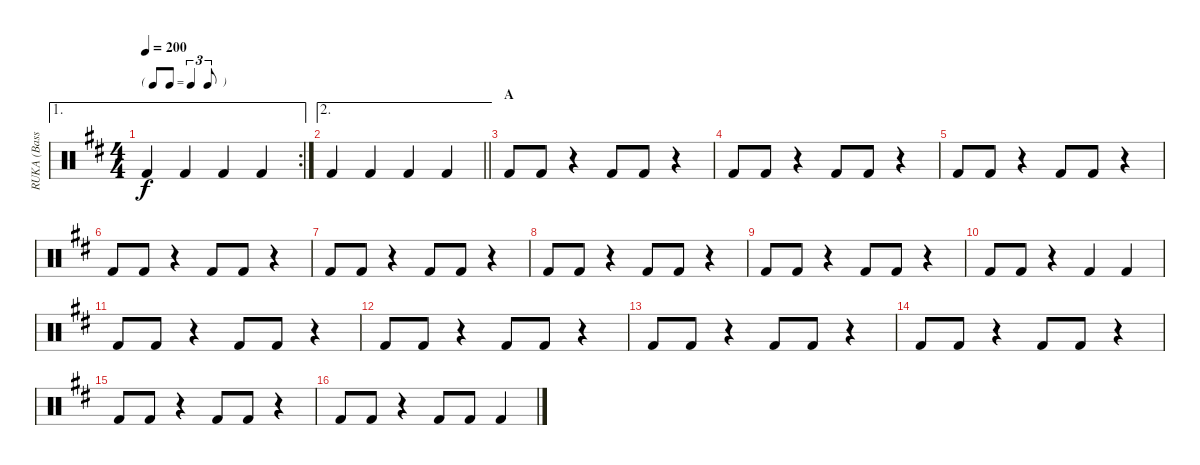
\track ("RUKA (Bass)" "RUKA (Bass") {instrument percussion}
\staff {score}
\articulation defaults
\ae 1
\rc 2
\ts (4 4)
\tf triplet8th
\tempo 200
\clef neutral
\ks d "Kick (hit) 2".4{dy f} "Kick (hit) 2".4 "Kick (hit) 2".4 "Kick (hit) 2".4
|
\ae 2
\barLineRight lightlight "Kick (hit) 2".4 "Kick (hit) 2".4 "Kick (hit) 2".4 "Kick (hit) 2".4
|
\section ("" "A")
"Kick (hit) 2".8 "Kick (hit) 2".8 r.4 "Kick (hit) 2".8 "Kick (hit) 2".8 r.4 |
"Kick (hit) 2".8 "Kick (hit) 2".8 r.4 "Kick (hit) 2".8 "Kick (hit) 2".8 r.4 |
"Kick (hit) 2".8 "Kick (hit) 2".8 r.4 "Kick (hit) 2".8 "Kick (hit) 2".8 r.4 |
"Kick (hit) 2".8 "Kick (hit) 2".8 r.4 "Kick (hit) 2".8 "Kick (hit) 2".8 r.4 |
"Kick (hit) 2".8 "Kick (hit) 2".8 r.4 "Kick (hit) 2".8 "Kick (hit) 2".8 r.4 |
"Kick (hit) 2".8 "Kick (hit) 2".8 r.4 "Kick (hit) 2".8 "Kick (hit) 2".8 r.4 |
"Kick (hit) 2".8 "Kick (hit) 2".8 r.4 "Kick (hit) 2".8 "Kick (hit) 2".8 r.4 |
"Kick (hit) 2".8 "Kick (hit) 2".8 r.4 "Kick (hit) 2".4 "Kick (hit) 2".4 |
"Kick (hit) 2".8 "Kick (hit) 2".8 r.4 "Kick (hit) 2".8 "Kick (hit) 2".8 r.4 |
"Kick (hit) 2".8 "Kick (hit) 2".8 r.4 "Kick (hit) 2".8 "Kick (hit) 2".8 r.4 |
"Kick (hit) 2".8 "Kick (hit) 2".8 r.4 "Kick (hit) 2".8 "Kick (hit) 2".8 r.4 |
"Kick (hit) 2".8 "Kick (hit) 2".8 r.4 "Kick (hit) 2".8 "Kick (hit) 2".8 r.4 |
"Kick (hit) 2".8 "Kick (hit) 2".8 r.4 "Kick (hit) 2".8 "Kick (hit) 2".8 r.4 |
"Kick (hit) 2".8 "Kick (hit) 2".8 r.4 "Kick (hit) 2".8 "Kick (hit) 2".8 "Kick (hit) 2".4
